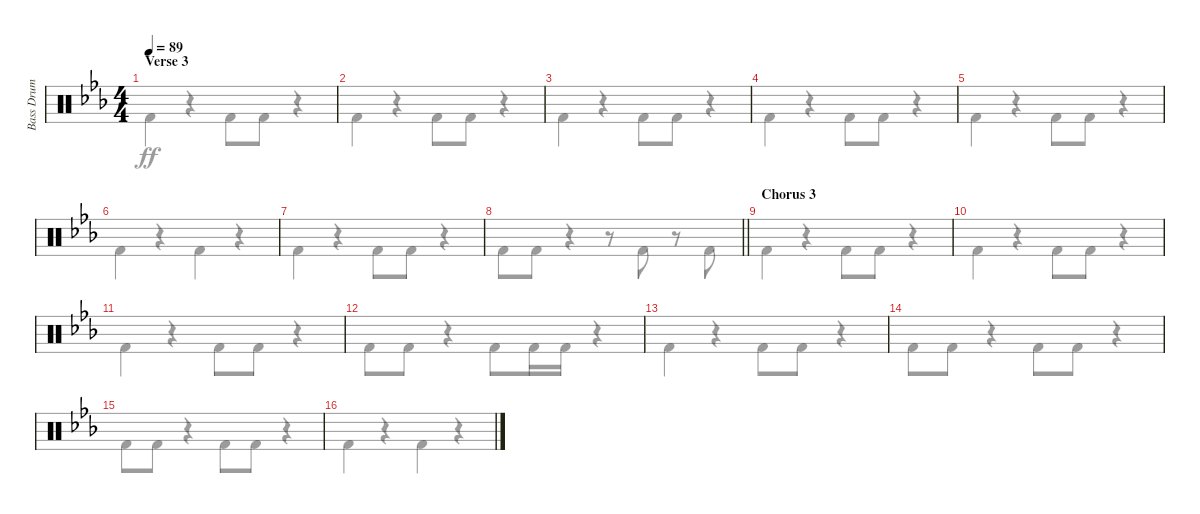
\track ("Bass Drum" "Bass Drum") {instrument percussion}
\staff {score}
\articulation defaults
\voice
\ts (4 4)
\section ("" "Verse 3")
\tempo 89
\clef neutral
\ks eb
|
|
|
|
|
|
|
\barLineRight lightlight
|
\section ("" "Chorus 3")
|
|
|
|
|
|
|
\voice
\clef neutral
\ks eb "Kick (hit) 2".4{dy ff}
r.4 "Kick (hit) 2".8 "Kick (hit) 2".8 r.4 |
"Kick (hit) 2".4 r.4 "Kick (hit) 2".8 "Kick (hit) 2".8 r.4 |
"Kick (hit) 2".4 r.4 "Kick (hit) 2".8 "Kick (hit) 2".8 r.4 |
"Kick (hit) 2".4 r.4 "Kick (hit) 2".8 "Kick (hit) 2".8 r.4 |
"Kick (hit) 2".4 r.4 "Kick (hit) 2".8 "Kick (hit) 2".8 r.4 |
"Kick (hit) 2".4 r.4 "Kick (hit) 2".4 r.4 |
"Kick (hit) 2".4 r.4 "Kick (hit) 2".8 "Kick (hit) 2".8 r.4 |
\barLineRight lightlight "Kick (hit) 2".8 "Kick (hit) 2".8
r.4 r.8 "Kick (hit) 2".8 r.8 "Kick (hit) 2".8 |
"Kick (hit) 2".4 r.4 "Kick (hit) 2".8 "Kick (hit) 2".8 r.4 |
"Kick (hit) 2".4 r.4 "Kick (hit) 2".8 "Kick (hit) 2".8 r.4 |
"Kick (hit) 2".4 r.4 "Kick (hit) 2".8 "Kick (hit) 2".8 r.4 |
"Kick (hit) 2".8 "Kick (hit) 2".8 r.4 "Kick (hit) 2".8 "Kick (hit) 2".16 "Kick (hit) 2".16 r.4 |
"Kick (hit) 2".4 r.4 "Kick (hit) 2".8 "Kick (hit) 2".8 r.4 |
"Kick (hit) 2".8 "Kick (hit) 2".8 r.4 "Kick (hit) 2".8 "Kick (hit) 2".8 r.4 |
"Kick (hit) 2".8 "Kick (hit) 2".8 r.4 "Kick (hit) 2".8 "Kick (hit) 2".8 r.4 |
"Kick (hit) 2".4 r.4 "Kick (hit) 2".4 r.4
